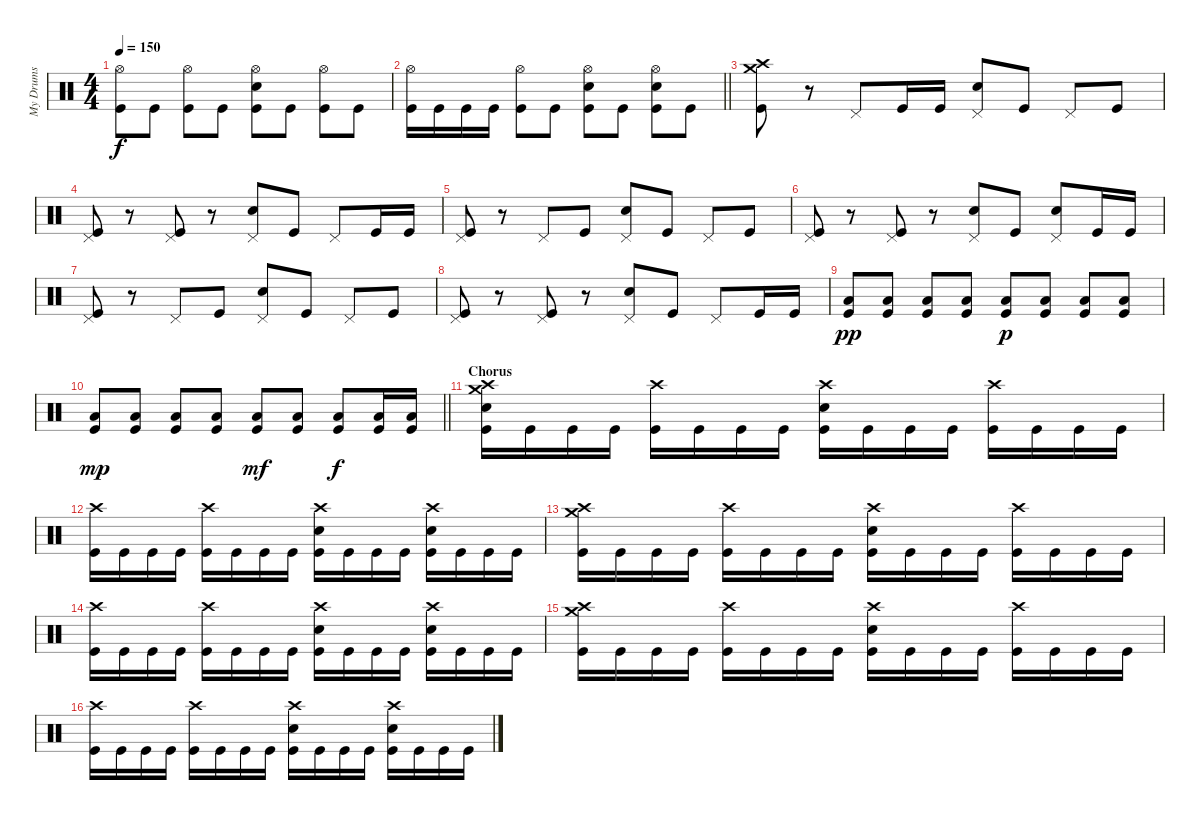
\track ("My Drums" "My Drums") {instrument percussion}
\staff {score}
\articulation defaults
\ts (4 4)
\tempo 150
\clef neutral
\ks c
("Hi-Hat (open)" "Kick (hit)").8{dy f} "Kick (hit)".8 ("Hi-Hat (open)" "Kick (hit)").8 "Kick (hit)".8 ("Hi-Hat (open)" "Snare (hit) 2" "Kick (hit)").8 "Kick (hit)".8 ("Hi-Hat (open)" "Kick (hit)").8 "Kick (hit)".8 |
\barLineRight lightlight
("Hi-Hat (open)" "Kick (hit)").16 "Kick (hit)".16 "Kick (hit)".16 "Kick (hit)".16 ("Hi-Hat (open)" "Kick (hit)").8 "Kick (hit)".8 ("Hi-Hat (open)" "Snare (hit) 2" "Kick (hit)").8 "Kick (hit)".8 ("Hi-Hat (open)" "Snare (hit) 2" "Kick (hit)").8 "Kick (hit)".8 |
("Crash high (hit)" "Crash medium (hit)" "Kick (hit)").8 r.8 "Pedal Hi-Hat (hit)".8 "Kick (hit)".16 "Kick (hit)".16 ("Pedal Hi-Hat (hit)" "Snare (hit) 2").8 "Kick (hit)".8 "Pedal Hi-Hat (hit)".8 "Kick (hit)".8 |
("Pedal Hi-Hat (hit)" "Kick (hit)").8 r.8 ("Pedal Hi-Hat (hit)" "Kick (hit)").8 r.8 ("Pedal Hi-Hat (hit)" "Snare (hit) 2").8 "Kick (hit)".8 "Pedal Hi-Hat (hit)".8 "Kick (hit)".16 "Kick (hit)".16 |
("Pedal Hi-Hat (hit)" "Kick (hit)").8 r.8 "Pedal Hi-Hat (hit)".8 "Kick (hit)".8 ("Pedal Hi-Hat (hit)" "Snare (hit) 2").8 "Kick (hit)".8 "Pedal Hi-Hat (hit)".8 "Kick (hit)".8 |
("Pedal Hi-Hat (hit)" "Kick (hit)").8 r.8 ("Pedal Hi-Hat (hit)" "Kick (hit)").8 r.8 ("Pedal Hi-Hat (hit)" "Snare (hit) 2").8 "Kick (hit)".8 ("Pedal Hi-Hat (hit)" "Snare (hit) 2").8 "Kick (hit)".16 "Kick (hit)".16 |
("Pedal Hi-Hat (hit)" "Kick (hit)").8 r.8 "Pedal Hi-Hat (hit)".8 "Kick (hit)".8 ("Pedal Hi-Hat (hit)" "Snare (hit) 2").8 "Kick (hit)".8 "Pedal Hi-Hat (hit)".8 "Kick (hit)".8 |
("Pedal Hi-Hat (hit)" "Kick (hit)").8 r.8 ("Pedal Hi-Hat (hit)" "Kick (hit)").8 r.8 ("Pedal Hi-Hat (hit)" "Snare (hit) 2").8 "Kick (hit)".8 "Pedal Hi-Hat (hit)".8 "Kick (hit)".16 "Kick (hit)".16 |
("Low Floor Tom (hit)" "Kick (hit)").8{dy pp} ("Low Floor Tom (hit)" "Kick (hit)").8 ("Low Floor Tom (hit)" "Kick (hit)").8 ("Low Floor Tom (hit)" "Kick (hit)").8 ("Low Floor Tom (hit)" "Kick (hit)").8{dy p} ("Low Floor Tom (hit)" "Kick (hit)").8 ("Low Floor Tom (hit)" "Kick (hit)").8 ("Low Floor Tom (hit)" "Kick (hit)").8 |
\barLineRight lightlight
("Low Floor Tom (hit)" "Kick (hit)").8{dy mp} ("Low Floor Tom (hit)" "Kick (hit)").8 ("Low Floor Tom (hit)" "Kick (hit)").8 ("Low Floor Tom (hit)" "Kick (hit)").8 ("Low Floor Tom (hit)" "Kick (hit)").8{dy mf} ("Low Floor Tom (hit)" "Kick (hit)").8 ("Low Floor Tom (hit)" "Kick (hit)").8{dy f} ("Low Floor Tom (hit)" "Kick (hit)").16 ("Low Floor Tom (hit)" "Kick (hit)").16 |
\section ("" "Chorus")
("Crash high (hit)" "Crash medium (hit)" "Snare (hit) 2" "Kick (hit)").16 "Kick (hit)".16 "Kick (hit)".16 "Kick (hit)".16 ("Crash high (hit)" "Kick (hit)").16 "Kick (hit)".16 "Kick (hit)".16 "Kick (hit)".16 ("Crash high (hit)" "Snare (hit) 2" "Kick (hit)").16 "Kick (hit)".16 "Kick (hit)".16 "Kick (hit)".16 ("Crash high (hit)" "Kick (hit)").16 "Kick (hit)".16 "Kick (hit)".16 "Kick (hit)".16 |
("Crash high (hit)" "Kick (hit)").16 "Kick (hit)".16 "Kick (hit)".16 "Kick (hit)".16 ("Crash high (hit)" "Kick (hit)").16 "Kick (hit)".16 "Kick (hit)".16 "Kick (hit)".16 ("Crash high (hit)" "Snare (hit) 2" "Kick (hit)").16 "Kick (hit)".16 "Kick (hit)".16 "Kick (hit)".16 ("Crash high (hit)" "Snare (hit) 2" "Kick (hit)").16 "Kick (hit)".16 "Kick (hit)".16 "Kick (hit)".16 |
("Crash high (hit)" "Crash medium (hit)" "Kick (hit)").16 "Kick (hit)".16 "Kick (hit)".16 "Kick (hit)".16 ("Crash high (hit)" "Kick (hit)").16 "Kick (hit)".16 "Kick (hit)".16 "Kick (hit)".16 ("Crash high (hit)" "Snare (hit) 2" "Kick (hit)").16 "Kick (hit)".16 "Kick (hit)".16 "Kick (hit)".16 ("Crash high (hit)" "Kick (hit)").16 "Kick (hit)".16 "Kick (hit)".16 "Kick (hit)".16 |
("Crash high (hit)" "Kick (hit)").16 "Kick (hit)".16 "Kick (hit)".16 "Kick (hit)".16 ("Crash high (hit)" "Kick (hit)").16 "Kick (hit)".16 "Kick (hit)".16 "Kick (hit)".16 ("Crash high (hit)" "Snare (hit) 2" "Kick (hit)").16 "Kick (hit)".16 "Kick (hit)".16 "Kick (hit)".16 ("Crash high (hit)" "Snare (hit) 2" "Kick (hit)").16 "Kick (hit)".16 "Kick (hit)".16 "Kick (hit)".16 |
("Crash high (hit)" "Crash medium (hit)" "Kick (hit)").16 "Kick (hit)".16 "Kick (hit)".16 "Kick (hit)".16 ("Crash high (hit)" "Kick (hit)").16 "Kick (hit)".16 "Kick (hit)".16 "Kick (hit)".16 ("Crash high (hit)" "Snare (hit) 2" "Kick (hit)").16 "Kick (hit)".16 "Kick (hit)".16 "Kick (hit)".16 ("Crash high (hit)" "Kick (hit)").16 "Kick (hit)".16 "Kick (hit)".16 "Kick (hit)".16 |
("Crash high (hit)" "Kick (hit)").16 "Kick (hit)".16 "Kick (hit)".16 "Kick (hit)".16 ("Crash high (hit)" "Kick (hit)").16 "Kick (hit)".16 "Kick (hit)".16 "Kick (hit)".16 ("Crash high (hit)" "Snare (hit) 2" "Kick (hit)").16 "Kick (hit)".16 "Kick (hit)".16 "Kick (hit)".16 ("Crash high (hit)" "Snare (hit) 2" "Kick (hit)").16 "Kick (hit)".16 "Kick (hit)".16 "Kick (hit)".16
